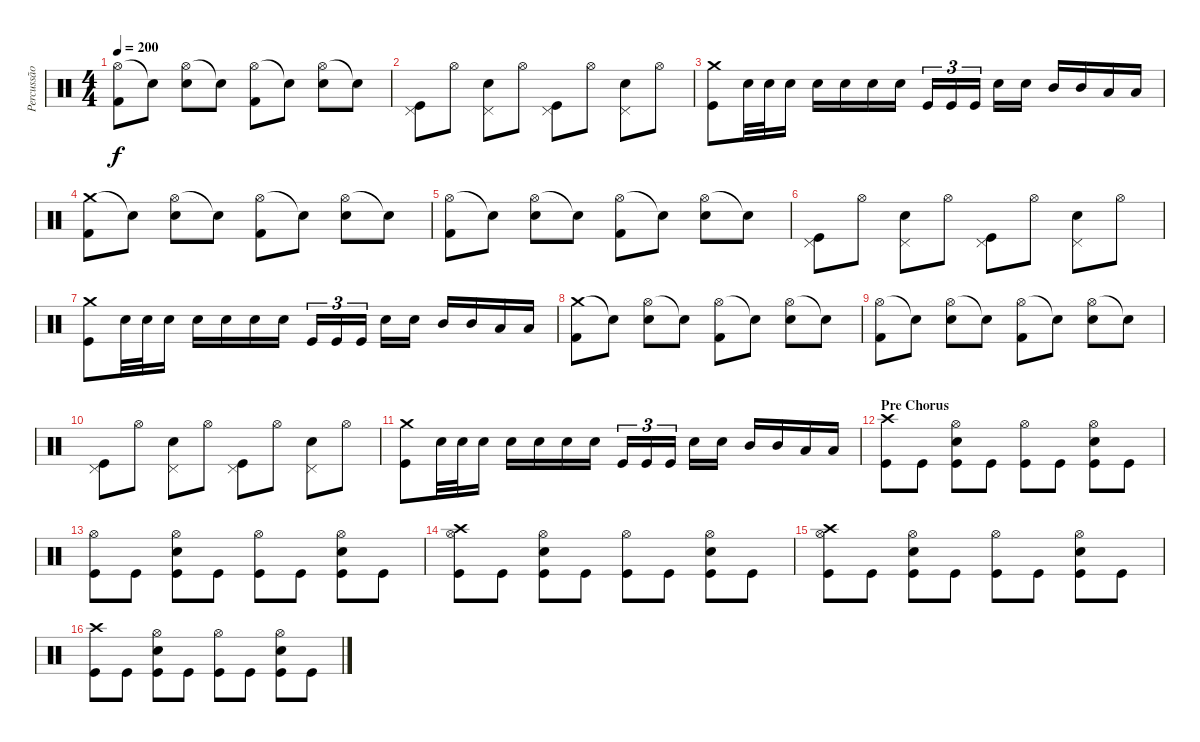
\track ("Percussão" "Percussão") {instrument percussion}
\staff {score}
\articulation defaults
\ts (4 4)
\tempo 200
\clef neutral
\ks c
("Hi-Hat (open)" "Kick (hit) 2").8{dy f} "Snare (hit)"{t}.8 ("Hi-Hat (open)" "Electric Snare (hit)").8 "Snare (hit)"{t}.8 ("Hi-Hat (open)" "Kick (hit) 2").8 "Snare (hit)"{t}.8 ("Hi-Hat (open)" "Electric Snare (hit)").8 "Snare (hit)"{t}.8 |
("Pedal Hi-Hat (hit)" "Kick (hit)").8 "Hi-Hat (open)".8 ("Pedal Hi-Hat (hit)" "Electric Snare (hit)").8 "Hi-Hat (open)".8 ("Pedal Hi-Hat (hit)" "Kick (hit)").8 "Hi-Hat (open)".8 ("Pedal Hi-Hat (hit)" "Electric Snare (hit)").8 "Hi-Hat (open)".8 |
("Crash medium (hit)" "Kick (hit)").8 "Electric Snare (hit)".32 "Electric Snare (hit)".32 "Electric Snare (hit)".16 "Electric Snare (hit)".16 "Electric Snare (hit)".16 "Electric Snare (hit)".16 "Electric Snare (hit)".16 "Kick (hit)".16{tu (3 2)} "Kick (hit)".16{tu (3 2)} "Kick (hit)".16{tu (3 2)} "Electric Snare (hit)".16 "Electric Snare (hit)".16 "Mid Tom (hit)".16 "Mid Tom (hit)".16 "Low Tom (hit)".16 "Low Tom (hit)".16 |
("Crash medium (hit)" "Kick (hit) 2").8 "Snare (hit)"{t}.8 ("Hi-Hat (open)" "Electric Snare (hit)").8 "Snare (hit)"{t}.8 ("Hi-Hat (open)" "Kick (hit) 2").8 "Snare (hit)"{t}.8 ("Hi-Hat (open)" "Electric Snare (hit)").8 "Snare (hit)"{t}.8 |
("Hi-Hat (open)" "Kick (hit) 2").8 "Snare (hit)"{t}.8 ("Hi-Hat (open)" "Electric Snare (hit)").8 "Snare (hit)"{t}.8 ("Hi-Hat (open)" "Kick (hit) 2").8 "Snare (hit)"{t}.8 ("Hi-Hat (open)" "Electric Snare (hit)").8 "Snare (hit)"{t}.8 |
("Pedal Hi-Hat (hit)" "Kick (hit)").8 "Hi-Hat (open)".8 ("Pedal Hi-Hat (hit)" "Electric Snare (hit)").8 "Hi-Hat (open)".8 ("Pedal Hi-Hat (hit)" "Kick (hit)").8 "Hi-Hat (open)".8 ("Pedal Hi-Hat (hit)" "Electric Snare (hit)").8 "Hi-Hat (open)".8 |
("Crash medium (hit)" "Kick (hit)").8 "Electric Snare (hit)".32 "Electric Snare (hit)".32 "Electric Snare (hit)".16 "Electric Snare (hit)".16 "Electric Snare (hit)".16 "Electric Snare (hit)".16 "Electric Snare (hit)".16 "Kick (hit)".16{tu (3 2)} "Kick (hit)".16{tu (3 2)} "Kick (hit)".16{tu (3 2)} "Electric Snare (hit)".16 "Electric Snare (hit)".16 "Mid Tom (hit)".16 "Mid Tom (hit)".16 "Low Tom (hit)".16 "Low Tom (hit)".16 |
("Crash medium (hit)" "Kick (hit) 2").8 "Snare (hit)"{t}.8 ("Hi-Hat (open)" "Electric Snare (hit)").8 "Snare (hit)"{t}.8 ("Hi-Hat (open)" "Kick (hit) 2").8 "Snare (hit)"{t}.8 ("Hi-Hat (open)" "Electric Snare (hit)").8 "Snare (hit)"{t}.8 |
("Hi-Hat (open)" "Kick (hit) 2").8 "Snare (hit)"{t}.8 ("Hi-Hat (open)" "Electric Snare (hit)").8 "Snare (hit)"{t}.8 ("Hi-Hat (open)" "Kick (hit) 2").8 "Snare (hit)"{t}.8 ("Hi-Hat (open)" "Electric Snare (hit)").8 "Snare (hit)"{t}.8 |
("Pedal Hi-Hat (hit)" "Kick (hit)").8 "Hi-Hat (open)".8 ("Pedal Hi-Hat (hit)" "Electric Snare (hit)").8 "Hi-Hat (open)".8 ("Pedal Hi-Hat (hit)" "Kick (hit)").8 "Hi-Hat (open)".8 ("Pedal Hi-Hat (hit)" "Electric Snare (hit)").8 "Hi-Hat (open)".8 |
("Crash medium (hit)" "Kick (hit)").8 "Electric Snare (hit)".32 "Electric Snare (hit)".32 "Electric Snare (hit)".16 "Electric Snare (hit)".16 "Electric Snare (hit)".16 "Electric Snare (hit)".16 "Electric Snare (hit)".16 "Kick (hit)".16{tu (3 2)} "Kick (hit)".16{tu (3 2)} "Kick (hit)".16{tu (3 2)} "Electric Snare (hit)".16 "Electric Snare (hit)".16 "Mid Tom (hit)".16 "Mid Tom (hit)".16 "Low Tom (hit)".16 "Low Tom (hit)".16 |
\section ("" "Pre Chorus")
("Crash high (hit)" "Kick (hit)").8 "Kick (hit)".8 ("Hi-Hat (open)" "Electric Snare (hit)" "Kick (hit)").8 "Kick (hit)".8 ("Hi-Hat (open)" "Kick (hit)").8 "Kick (hit)".8 ("Hi-Hat (open)" "Electric Snare (hit)" "Kick (hit)").8 "Kick (hit)".8 |
("Hi-Hat (open)" "Kick (hit)").8 "Kick (hit)".8 ("Hi-Hat (open)" "Electric Snare (hit)" "Kick (hit)").8 "Kick (hit)".8 ("Hi-Hat (open)" "Kick (hit)").8 "Kick (hit)".8 ("Hi-Hat (open)" "Electric Snare (hit)" "Kick (hit)").8 "Kick (hit)".8 |
("Crash high (hit)" "Hi-Hat (open)" "Kick (hit)").8 "Kick (hit)".8 ("Hi-Hat (open)" "Electric Snare (hit)" "Kick (hit)").8 "Kick (hit)".8 ("Hi-Hat (open)" "Kick (hit)").8 "Kick (hit)".8 ("Hi-Hat (open)" "Electric Snare (hit)" "Kick (hit)").8 "Kick (hit)".8 |
("Crash high (hit)" "Hi-Hat (open)" "Kick (hit)").8 "Kick (hit)".8 ("Hi-Hat (open)" "Electric Snare (hit)" "Kick (hit)").8 "Kick (hit)".8 ("Hi-Hat (open)" "Kick (hit)").8 "Kick (hit)".8 ("Hi-Hat (open)" "Electric Snare (hit)" "Kick (hit)").8 "Kick (hit)".8 |
("Crash high (hit)" "Kick (hit)").8 "Kick (hit)".8 ("Hi-Hat (open)" "Electric Snare (hit)" "Kick (hit)").8 "Kick (hit)".8 ("Hi-Hat (open)" "Kick (hit)").8 "Kick (hit)".8 ("Hi-Hat (open)" "Electric Snare (hit)" "Kick (hit)").8 "Kick (hit)".8
